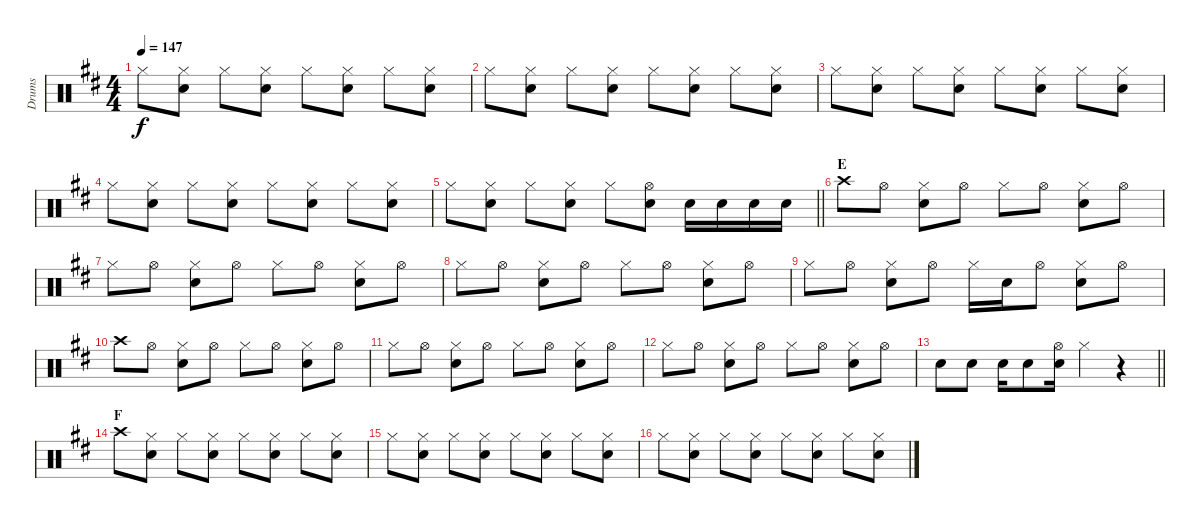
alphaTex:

\track ("Drums" "Drums") {instrument percussion}
\staff {score}
\articulation defaults
\ts (4 4)
\tempo 147
\clef neutral
\ks d "Hi-Hat (closed)".8{dy f}
("Hi-Hat (closed)" "Snare (hit) 2").8 "Hi-Hat (closed)".8 ("Hi-Hat (closed)" "Snare (hit) 2").8 "Hi-Hat (closed)".8 ("Hi-Hat (closed)" "Snare (hit) 2").8 "Hi-Hat (closed)".8 ("Hi-Hat (closed)" "Snare (hit) 2").8 |
"Hi-Hat (closed)".8 ("Hi-Hat (closed)" "Snare (hit) 2").8 "Hi-Hat (closed)".8 ("Hi-Hat (closed)" "Snare (hit) 2").8 "Hi-Hat (closed)".8 ("Hi-Hat (closed)" "Snare (hit) 2").8 "Hi-Hat (closed)".8 ("Hi-Hat (closed)" "Snare (hit) 2").8 |
"Hi-Hat (closed)".8 ("Hi-Hat (closed)" "Snare (hit) 2").8 "Hi-Hat (closed)".8 ("Hi-Hat (closed)" "Snare (hit) 2").8 "Hi-Hat (closed)".8 ("Hi-Hat (closed)" "Snare (hit) 2").8 "Hi-Hat (closed)".8 ("Hi-Hat (closed)" "Snare (hit) 2").8 |
"Hi-Hat (closed)".8 ("Hi-Hat (closed)" "Snare (hit) 2").8 "Hi-Hat (closed)".8 ("Hi-Hat (closed)" "Snare (hit) 2").8 "Hi-Hat (closed)".8 ("Hi-Hat (closed)" "Snare (hit) 2").8 "Hi-Hat (closed)".8 ("Hi-Hat (closed)" "Snare (hit) 2").8 |
\barLineRight lightlight "Hi-Hat (closed)".8
("Hi-Hat (closed)" "Snare (hit) 2").8 "Hi-Hat (closed)".8 ("Hi-Hat (closed)" "Snare (hit) 2").8 "Hi-Hat (closed)".8 ("Hi-Hat (open)" "Snare (hit) 2").8 "Snare (hit) 2".16 "Snare (hit) 2".16 "Snare (hit) 2".16 "Snare (hit) 2".16 |
\section ("" "E")
"Crash high (hit)".8 "Hi-Hat (open)".8 ("Hi-Hat (closed)" "Snare (hit) 2").8 "Hi-Hat (open)".8 "Hi-Hat (closed)".8 "Hi-Hat (open)".8 ("Hi-Hat (closed)" "Snare (hit) 2").8 "Hi-Hat (open)".8 |
"Hi-Hat (closed)".8 "Hi-Hat (open)".8 ("Hi-Hat (closed)" "Snare (hit) 2").8 "Hi-Hat (open)".8 "Hi-Hat (closed)".8 "Hi-Hat (open)".8 ("Hi-Hat (closed)" "Snare (hit) 2").8 "Hi-Hat (open)".8 |
"Hi-Hat (closed)".8 "Hi-Hat (open)".8 ("Hi-Hat (closed)" "Snare (hit) 2").8 "Hi-Hat (open)".8 "Hi-Hat (closed)".8 "Hi-Hat (open)".8 ("Hi-Hat (closed)" "Snare (hit) 2").8 "Hi-Hat (open)".8 |
"Hi-Hat (closed)".8 "Hi-Hat (open)".8 ("Hi-Hat (closed)" "Snare (hit) 2").8 "Hi-Hat (open)".8 "Hi-Hat (closed)".16 "Snare (hit) 2".16 "Hi-Hat (open)".8 ("Hi-Hat (closed)" "Snare (hit) 2").8 "Hi-Hat (open)".8 |
"Crash high (hit)".8 "Hi-Hat (open)".8 ("Hi-Hat (closed)" "Snare (hit) 2").8 "Hi-Hat (open)".8 "Hi-Hat (closed)".8 "Hi-Hat (open)".8 ("Hi-Hat (closed)" "Snare (hit) 2").8 "Hi-Hat (open)".8 |
"Hi-Hat (closed)".8 "Hi-Hat (open)".8 ("Hi-Hat (closed)" "Snare (hit) 2").8 "Hi-Hat (open)".8 "Hi-Hat (closed)".8 "Hi-Hat (open)".8 ("Hi-Hat (closed)" "Snare (hit) 2").8 "Hi-Hat (open)".8 |
"Hi-Hat (closed)".8 "Hi-Hat (open)".8 ("Hi-Hat (closed)" "Snare (hit) 2").8 "Hi-Hat (open)".8 "Hi-Hat (closed)".8 "Hi-Hat (open)".8 ("Hi-Hat (closed)" "Snare (hit) 2").8 "Hi-Hat (open)".8 |
\barLineRight lightlight "Snare (hit) 2".8 "Snare (hit) 2".8 "Snare (hit) 2".16 "Snare (hit) 2".8
("Hi-Hat (open)" "Snare (hit) 2").16 "Hi-Hat (closed)".4 r.4 |
\section ("" "F")
"Crash high (hit)".8 ("Hi-Hat (closed)" "Snare (hit) 2").8 "Hi-Hat (closed)".8 ("Hi-Hat (closed)" "Snare (hit) 2").8 "Hi-Hat (closed)".8 ("Hi-Hat (closed)" "Snare (hit) 2").8 "Hi-Hat (closed)".8 ("Hi-Hat (closed)" "Snare (hit) 2").8 |
"Hi-Hat (closed)".8 ("Hi-Hat (closed)" "Snare (hit) 2").8 "Hi-Hat (closed)".8 ("Hi-Hat (closed)" "Snare (hit) 2").8 "Hi-Hat (closed)".8 ("Hi-Hat (closed)" "Snare (hit) 2").8 "Hi-Hat (closed)".8 ("Hi-Hat (closed)" "Snare (hit) 2").8 |
"Hi-Hat (closed)".8 ("Hi-Hat (closed)" "Snare (hit) 2").8 "Hi-Hat (closed)".8 ("Hi-Hat (closed)" "Snare (hit) 2").8 "Hi-Hat (closed)".8 ("Hi-Hat (closed)" "Snare (hit) 2").8 "Hi-Hat (closed)".8 ("Hi-Hat (closed)" "Snare (hit) 2").8
